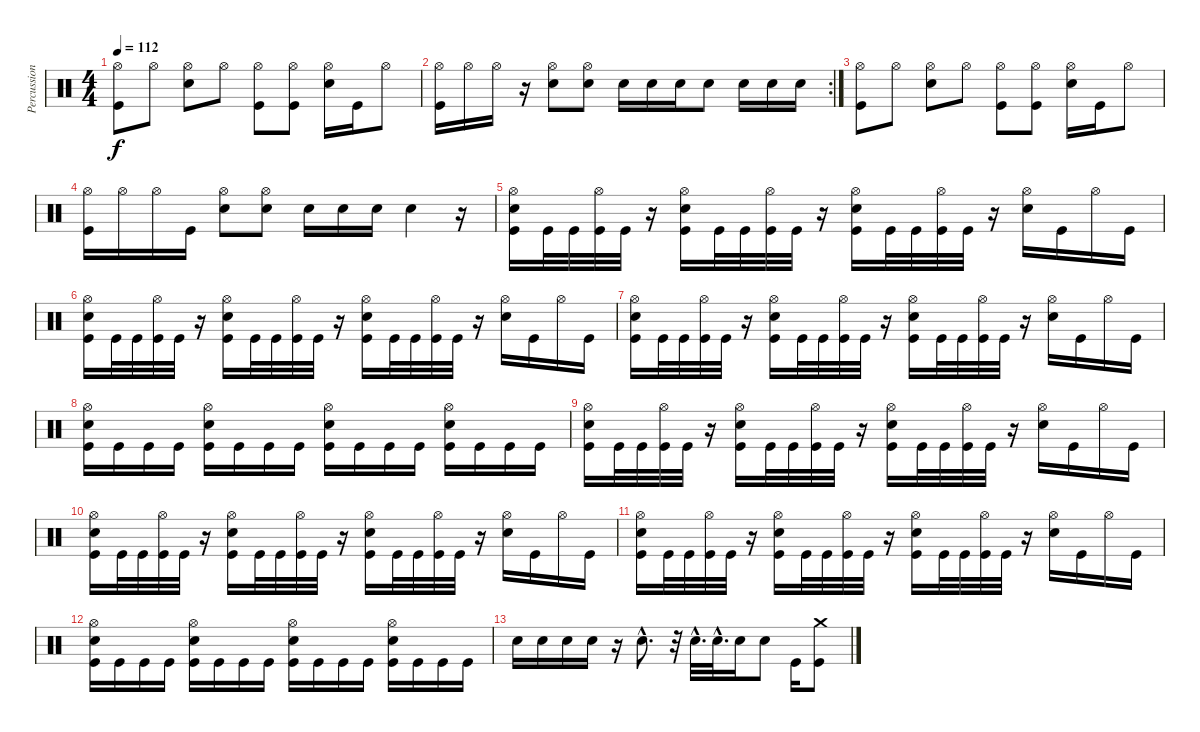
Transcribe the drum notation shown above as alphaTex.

\track ("Percussion" "Percussion") {instrument percussion}
\staff {score}
\articulation defaults
\ts (4 4)
\tempo 112
\clef neutral
\ks c
("Hi-Hat (open)" "Kick (hit)").8{dy f} "Hi-Hat (open)".8 ("Hi-Hat (open)" "Electric Snare (hit)").8 "Hi-Hat (open)".8 ("Hi-Hat (open)" "Kick (hit)").8 ("Hi-Hat (open)" "Kick (hit)").8 ("Hi-Hat (open)" "Electric Snare (hit)").16 "Kick (hit)".16 "Hi-Hat (open)".8 |
\rc 2
("Hi-Hat (open)" "Kick (hit)").16 "Hi-Hat (open)".16 "Hi-Hat (open)".16 r.16 ("Hi-Hat (open)" "Electric Snare (hit)").8 ("Hi-Hat (open)" "Electric Snare (hit)").8 "Electric Snare (hit)".16 "Electric Snare (hit)".16 "Electric Snare (hit)".16 "Electric Snare (hit)".8 "Electric Snare (hit)".16 "Electric Snare (hit)".16 "Electric Snare (hit)".16 |
("Hi-Hat (open)" "Kick (hit)").8 "Hi-Hat (open)".8 ("Hi-Hat (open)" "Electric Snare (hit)").8 "Hi-Hat (open)".8 ("Hi-Hat (open)" "Kick (hit)").8 ("Hi-Hat (open)" "Kick (hit)").8 ("Hi-Hat (open)" "Electric Snare (hit)").16 "Kick (hit)".16 "Hi-Hat (open)".8 |
("Hi-Hat (open)" "Kick (hit)").16 "Hi-Hat (open)".16 "Hi-Hat (open)".16 "Kick (hit)".16 ("Hi-Hat (open)" "Electric Snare (hit)").8 ("Hi-Hat (open)" "Electric Snare (hit)").8 "Electric Snare (hit)".16 "Electric Snare (hit)".16 "Electric Snare (hit)".16 "Electric Snare (hit)".4 r.16 |
("Hi-Hat (open)" "Electric Snare (hit)" "Kick (hit)").16 "Kick (hit)".32 "Kick (hit)".32 ("Hi-Hat (open)" "Kick (hit)").32 "Kick (hit)".32 r.16 ("Hi-Hat (open)" "Electric Snare (hit)" "Kick (hit)").16 "Kick (hit)".32 "Kick (hit)".32 ("Hi-Hat (open)" "Kick (hit)").32 "Kick (hit)".32 r.16 ("Hi-Hat (open)" "Electric Snare (hit)" "Kick (hit)").16 "Kick (hit)".32 "Kick (hit)".32 ("Hi-Hat (open)" "Kick (hit)").32 "Kick (hit)".32 r.16 ("Hi-Hat (open)" "Electric Snare (hit)").16 "Kick (hit)".16 "Hi-Hat (open)".16 "Kick (hit)".16 |
("Hi-Hat (open)" "Electric Snare (hit)" "Kick (hit)").16 "Kick (hit)".32 "Kick (hit)".32 ("Hi-Hat (open)" "Kick (hit)").32 "Kick (hit)".32 r.16 ("Hi-Hat (open)" "Electric Snare (hit)" "Kick (hit)").16 "Kick (hit)".32 "Kick (hit)".32 ("Hi-Hat (open)" "Kick (hit)").32 "Kick (hit)".32 r.16 ("Hi-Hat (open)" "Electric Snare (hit)" "Kick (hit)").16 "Kick (hit)".32 "Kick (hit)".32 ("Hi-Hat (open)" "Kick (hit)").32 "Kick (hit)".32 r.16 ("Hi-Hat (open)" "Electric Snare (hit)").16 "Kick (hit)".16 "Hi-Hat (open)".16 "Kick (hit)".16 |
("Hi-Hat (open)" "Electric Snare (hit)" "Kick (hit)").16 "Kick (hit)".32 "Kick (hit)".32 ("Hi-Hat (open)" "Kick (hit)").32 "Kick (hit)".32 r.16 ("Hi-Hat (open)" "Electric Snare (hit)" "Kick (hit)").16 "Kick (hit)".32 "Kick (hit)".32 ("Hi-Hat (open)" "Kick (hit)").32 "Kick (hit)".32 r.16 ("Hi-Hat (open)" "Electric Snare (hit)" "Kick (hit)").16 "Kick (hit)".32 "Kick (hit)".32 ("Hi-Hat (open)" "Kick (hit)").32 "Kick (hit)".32 r.16 ("Hi-Hat (open)" "Electric Snare (hit)").16 "Kick (hit)".16 "Hi-Hat (open)".16 "Kick (hit)".16 |
("Hi-Hat (open)" "Electric Snare (hit)" "Kick (hit)").16 "Kick (hit)".16 "Kick (hit)".16 "Kick (hit)".16 ("Hi-Hat (open)" "Electric Snare (hit)" "Kick (hit)").16 "Kick (hit)".16 "Kick (hit)".16 "Kick (hit)".16 ("Hi-Hat (open)" "Electric Snare (hit)" "Kick (hit)").16 "Kick (hit)".16 "Kick (hit)".16 "Kick (hit)".16 ("Hi-Hat (open)" "Electric Snare (hit)" "Kick (hit)").16 "Kick (hit)".16 "Kick (hit)".16 "Kick (hit)".16 |
("Hi-Hat (open)" "Electric Snare (hit)" "Kick (hit)").16 "Kick (hit)".32 "Kick (hit)".32 ("Hi-Hat (open)" "Kick (hit)").32 "Kick (hit)".32 r.16 ("Hi-Hat (open)" "Electric Snare (hit)" "Kick (hit)").16 "Kick (hit)".32 "Kick (hit)".32 ("Hi-Hat (open)" "Kick (hit)").32 "Kick (hit)".32 r.16 ("Hi-Hat (open)" "Electric Snare (hit)" "Kick (hit)").16 "Kick (hit)".32 "Kick (hit)".32 ("Hi-Hat (open)" "Kick (hit)").32 "Kick (hit)".32 r.16 ("Hi-Hat (open)" "Electric Snare (hit)").16 "Kick (hit)".16 "Hi-Hat (open)".16 "Kick (hit)".16 |
("Hi-Hat (open)" "Electric Snare (hit)" "Kick (hit)").16 "Kick (hit)".32 "Kick (hit)".32 ("Hi-Hat (open)" "Kick (hit)").32 "Kick (hit)".32 r.16 ("Hi-Hat (open)" "Electric Snare (hit)" "Kick (hit)").16 "Kick (hit)".32 "Kick (hit)".32 ("Hi-Hat (open)" "Kick (hit)").32 "Kick (hit)".32 r.16 ("Hi-Hat (open)" "Electric Snare (hit)" "Kick (hit)").16 "Kick (hit)".32 "Kick (hit)".32 ("Hi-Hat (open)" "Kick (hit)").32 "Kick (hit)".32 r.16 ("Hi-Hat (open)" "Electric Snare (hit)").16 "Kick (hit)".16 "Hi-Hat (open)".16 "Kick (hit)".16 |
("Hi-Hat (open)" "Electric Snare (hit)" "Kick (hit)").16 "Kick (hit)".32 "Kick (hit)".32 ("Hi-Hat (open)" "Kick (hit)").32 "Kick (hit)".32 r.16 ("Hi-Hat (open)" "Electric Snare (hit)" "Kick (hit)").16 "Kick (hit)".32 "Kick (hit)".32 ("Hi-Hat (open)" "Kick (hit)").32 "Kick (hit)".32 r.16 ("Hi-Hat (open)" "Electric Snare (hit)" "Kick (hit)").16 "Kick (hit)".32 "Kick (hit)".32 ("Hi-Hat (open)" "Kick (hit)").32 "Kick (hit)".32 r.16 ("Hi-Hat (open)" "Electric Snare (hit)").16 "Kick (hit)".16 "Hi-Hat (open)".16 "Kick (hit)".16 |
("Hi-Hat (open)" "Electric Snare (hit)" "Kick (hit)").16 "Kick (hit)".16 "Kick (hit)".16 "Kick (hit)".16 ("Hi-Hat (open)" "Electric Snare (hit)" "Kick (hit)").16 "Kick (hit)".16 "Kick (hit)".16 "Kick (hit)".16 ("Hi-Hat (open)" "Electric Snare (hit)" "Kick (hit)").16 "Kick (hit)".16 "Kick (hit)".16 "Kick (hit)".16 ("Hi-Hat (open)" "Electric Snare (hit)" "Kick (hit)").16 "Kick (hit)".16 "Kick (hit)".16 "Kick (hit)".16 |
"Electric Snare (hit)".16 "Electric Snare (hit)".16 "Electric Snare (hit)".16 "Electric Snare (hit)".16 r.16 "Electric Snare (hit)"{hac}.8{d} r.32 "Electric Snare (hit)"{hac}.32{d} "Electric Snare (hit)"{hac}.32{d} "Electric Snare (hit)".16 "Electric Snare (hit)".8 "Kick (hit)".16 ("Kick (hit)" "Crash medium (hit)").8
